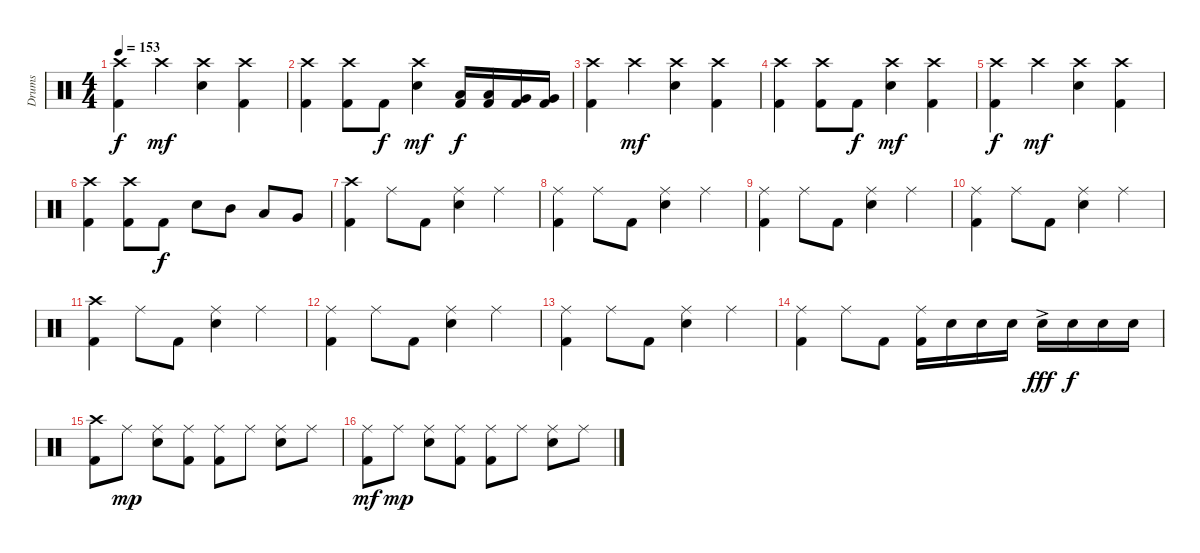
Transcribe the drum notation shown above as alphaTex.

\track ("Drums" "Drums") {instrument percussion}
\staff {score}
\articulation defaults
\ts (4 4)
\tempo 153
\clef neutral
\ks c
("Crash high (hit)" "Kick (hit) 2").4{dy f} "Crash high (hit)".4{dy mf} ("Crash high (hit)" "Electric Snare (hit)").4 ("Crash high (hit)" "Kick (hit) 2").4 |
("Crash high (hit)" "Kick (hit) 2").4 ("Crash high (hit)" "Kick (hit) 2").8 "Kick (hit) 2".8{dy f} ("Crash high (hit)" "Electric Snare (hit)").4{dy mf} ("Low Tom (hit)" "Kick (hit) 2").16{dy f} ("Low Tom (hit)" "Kick (hit) 2").16 ("Very Low Tom (hit)" "Kick (hit) 2").16 ("Very Low Tom (hit)" "Kick (hit) 2").16 |
("Crash high (hit)" "Kick (hit) 2").4 "Crash high (hit)".4{dy mf} ("Crash high (hit)" "Electric Snare (hit)").4 ("Crash high (hit)" "Kick (hit) 2").4 |
("Crash high (hit)" "Kick (hit) 2").4 ("Crash high (hit)" "Kick (hit) 2").8 "Kick (hit) 2".8{dy f} ("Crash high (hit)" "Electric Snare (hit)").4{dy mf} ("Crash high (hit)" "Kick (hit) 2").4 |
("Crash high (hit)" "Kick (hit) 2").4{dy f} "Crash high (hit)".4{dy mf} ("Crash high (hit)" "Electric Snare (hit)").4 ("Crash high (hit)" "Kick (hit) 2").4 |
("Crash high (hit)" "Kick (hit) 2").4 ("Crash high (hit)" "Kick (hit) 2").8 "Kick (hit) 2".8{dy f} "Electric Snare (hit)".8 "Mid Tom (hit)".8 "Low Tom (hit)".8 "Very Low Tom (hit)".8 |
("Crash high (hit)" "Kick (hit) 2").4 "Ride (middle)".8 "Kick (hit) 2".8 ("Ride (middle)" "Electric Snare (hit)").4 "Ride (middle)".4 |
("Ride (middle)" "Kick (hit) 2").4 "Ride (middle)".8 "Kick (hit) 2".8 ("Ride (middle)" "Electric Snare (hit)").4 "Ride (middle)".4 |
("Ride (middle)" "Kick (hit) 2").4 "Ride (middle)".8 "Kick (hit) 2".8 ("Ride (middle)" "Electric Snare (hit)").4 "Ride (middle)".4 |
("Ride (middle)" "Kick (hit) 2").4 "Ride (middle)".8 "Kick (hit) 2".8 ("Ride (middle)" "Electric Snare (hit)").4 "Ride (middle)".4 |
("Crash high (hit)" "Kick (hit) 2").4 "Ride (middle)".8 "Kick (hit) 2".8 ("Ride (middle)" "Electric Snare (hit)").4 "Ride (middle)".4 |
("Ride (middle)" "Kick (hit) 2").4 "Ride (middle)".8 "Kick (hit) 2".8 ("Ride (middle)" "Electric Snare (hit)").4 "Ride (middle)".4 |
("Ride (middle)" "Kick (hit) 2").4 "Ride (middle)".8 "Kick (hit) 2".8 ("Ride (middle)" "Electric Snare (hit)").4 "Ride (middle)".4 |
("Ride (middle)" "Kick (hit) 2").4 "Ride (middle)".8 "Kick (hit) 2".8 ("Ride (middle)" "Kick (hit) 2").16 "Electric Snare (hit)".16 "Electric Snare (hit)".16 "Electric Snare (hit)".16 "Electric Snare (hit)"{ac}.16{dy fff} "Electric Snare (hit)".16{dy f} "Electric Snare (hit)".16 "Electric Snare (hit)".16 |
("Crash high (hit)" "Kick (hit) 2").8 "Ride (middle)".8{dy mp} ("Ride (middle)" "Electric Snare (hit)").8 ("Ride (middle)" "Kick (hit) 2").8 ("Ride (middle)" "Kick (hit) 2").8 "Ride (middle)".8 ("Ride (middle)" "Electric Snare (hit)").8 "Ride (middle)".8 |
("Ride (middle)" "Kick (hit) 2").8{dy mf} "Ride (middle)".8{dy mp} ("Ride (middle)" "Electric Snare (hit)").8 ("Ride (middle)" "Kick (hit) 2").8 ("Ride (middle)" "Kick (hit) 2").8 "Ride (middle)".8 ("Ride (middle)" "Electric Snare (hit)").8 "Ride (middle)".8
